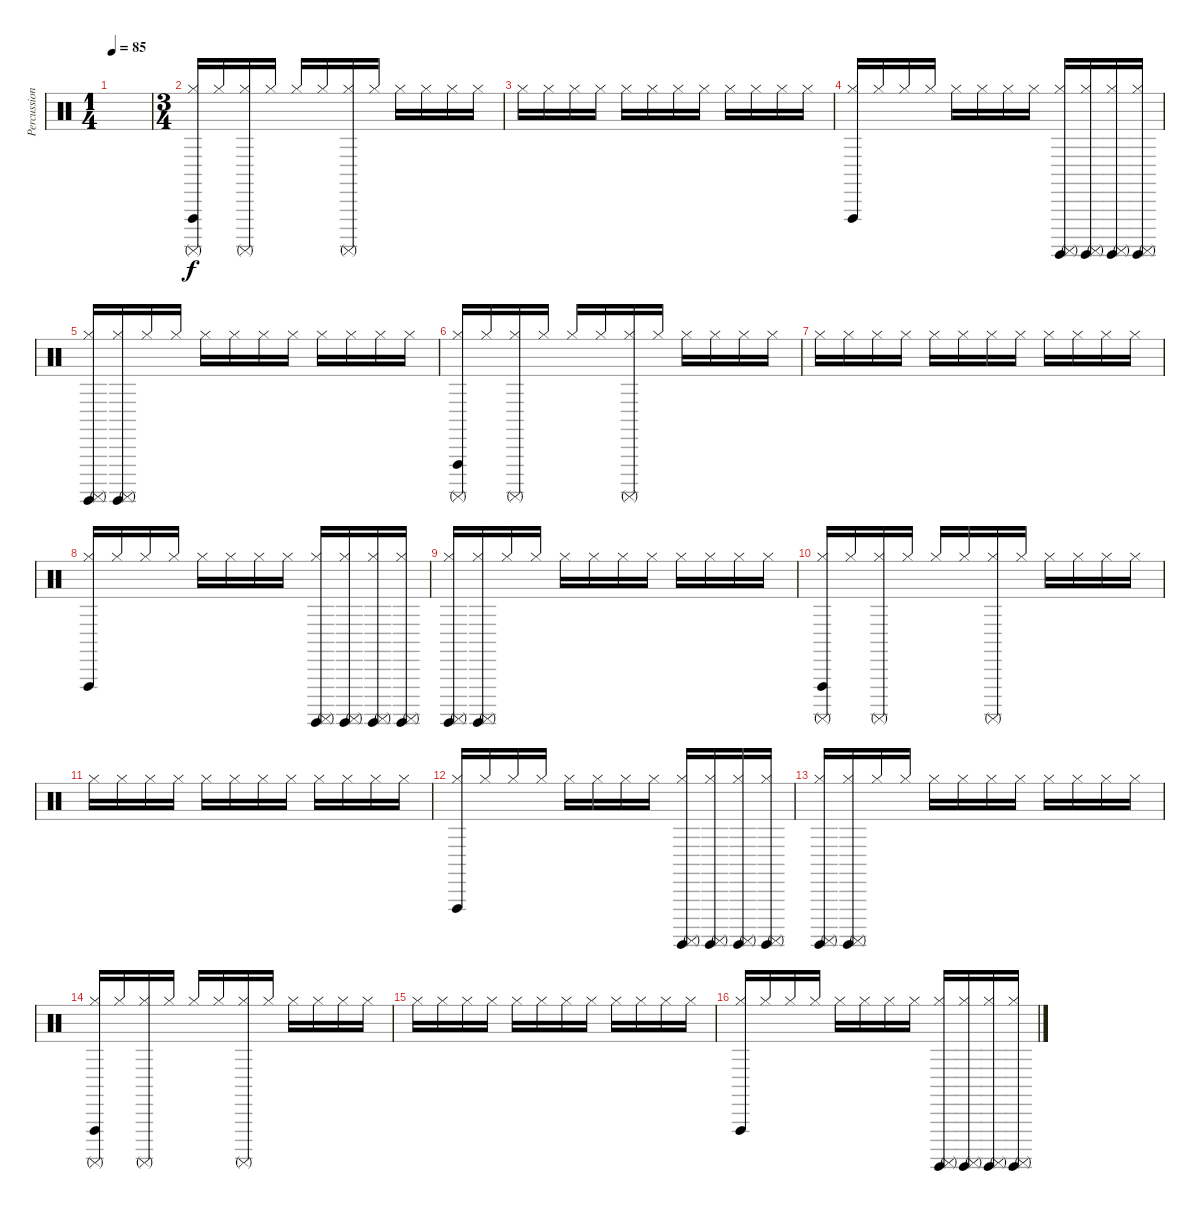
\track ("Percussion" "Percussion") {instrument percussion}
\staff {score}
\articulation defaults
\ts (1 4)
\tempo 85
\clef neutral
\ks c
|
\ts (3 4)
("Vibraslap (hit)" "Surdo (mute)" "Hi-Hat (closed)").16 "Hi-Hat (closed)".16 ("Surdo (mute)" "Hi-Hat (closed)").16 "Hi-Hat (closed)".16 "Hi-Hat (closed)".16 "Hi-Hat (closed)".16 ("Surdo (mute)" "Hi-Hat (closed)").16 "Hi-Hat (closed)".16 "Hi-Hat (closed)".16 "Hi-Hat (closed)".16 "Hi-Hat (closed)".16 "Hi-Hat (closed)".16 |
"Hi-Hat (closed)".16 "Hi-Hat (closed)".16 "Hi-Hat (closed)".16 "Hi-Hat (closed)".16 "Hi-Hat (closed)".16 "Hi-Hat (closed)".16 "Hi-Hat (closed)".16 "Hi-Hat (closed)".16 "Hi-Hat (closed)".16 "Hi-Hat (closed)".16 "Hi-Hat (closed)".16 "Hi-Hat (closed)".16 |
("Vibraslap (hit)" "Hi-Hat (closed)").16 "Hi-Hat (closed)".16 "Hi-Hat (closed)".16 "Hi-Hat (closed)".16 "Hi-Hat (closed)".16 "Hi-Hat (closed)".16 "Hi-Hat (closed)".16 "Hi-Hat (closed)".16 ("Surdo (hit)" "Surdo (mute)" "Hi-Hat (closed)").16{volume 8} ("Surdo (hit)" "Surdo (mute)" "Hi-Hat (closed)").16 ("Surdo (hit)" "Surdo (mute)" "Hi-Hat (closed)").16 ("Surdo (hit)" "Surdo (mute)" "Hi-Hat (closed)").16 |
("Surdo (hit)" "Surdo (mute)" "Hi-Hat (closed)").16 ("Surdo (hit)" "Surdo (mute)" "Hi-Hat (closed)").16 "Hi-Hat (closed)".16 "Hi-Hat (closed)".16 "Hi-Hat (closed)".16{volume 4} "Hi-Hat (closed)".16 "Hi-Hat (closed)".16 "Hi-Hat (closed)".16 "Hi-Hat (closed)".16 "Hi-Hat (closed)".16 "Hi-Hat (closed)".16 "Hi-Hat (closed)".16 |
("Vibraslap (hit)" "Surdo (mute)" "Hi-Hat (closed)").16 "Hi-Hat (closed)".16 ("Surdo (mute)" "Hi-Hat (closed)").16 "Hi-Hat (closed)".16 "Hi-Hat (closed)".16 "Hi-Hat (closed)".16 ("Surdo (mute)" "Hi-Hat (closed)").16 "Hi-Hat (closed)".16 "Hi-Hat (closed)".16 "Hi-Hat (closed)".16 "Hi-Hat (closed)".16 "Hi-Hat (closed)".16 |
"Hi-Hat (closed)".16 "Hi-Hat (closed)".16 "Hi-Hat (closed)".16 "Hi-Hat (closed)".16 "Hi-Hat (closed)".16 "Hi-Hat (closed)".16 "Hi-Hat (closed)".16 "Hi-Hat (closed)".16 "Hi-Hat (closed)".16 "Hi-Hat (closed)".16 "Hi-Hat (closed)".16 "Hi-Hat (closed)".16 |
("Vibraslap (hit)" "Hi-Hat (closed)").16 "Hi-Hat (closed)".16 "Hi-Hat (closed)".16 "Hi-Hat (closed)".16 "Hi-Hat (closed)".16 "Hi-Hat (closed)".16 "Hi-Hat (closed)".16 "Hi-Hat (closed)".16 ("Surdo (hit)" "Surdo (mute)" "Hi-Hat (closed)").16{volume 8} ("Surdo (hit)" "Surdo (mute)" "Hi-Hat (closed)").16 ("Surdo (hit)" "Surdo (mute)" "Hi-Hat (closed)").16 ("Surdo (hit)" "Surdo (mute)" "Hi-Hat (closed)").16 |
("Surdo (hit)" "Surdo (mute)" "Hi-Hat (closed)").16 ("Surdo (hit)" "Surdo (mute)" "Hi-Hat (closed)").16 "Hi-Hat (closed)".16 "Hi-Hat (closed)".16 "Hi-Hat (closed)".16{volume 4} "Hi-Hat (closed)".16 "Hi-Hat (closed)".16 "Hi-Hat (closed)".16 "Hi-Hat (closed)".16 "Hi-Hat (closed)".16 "Hi-Hat (closed)".16 "Hi-Hat (closed)".16 |
("Vibraslap (hit)" "Surdo (mute)" "Hi-Hat (closed)").16 "Hi-Hat (closed)".16 ("Surdo (mute)" "Hi-Hat (closed)").16 "Hi-Hat (closed)".16 "Hi-Hat (closed)".16 "Hi-Hat (closed)".16 ("Surdo (mute)" "Hi-Hat (closed)").16 "Hi-Hat (closed)".16 "Hi-Hat (closed)".16 "Hi-Hat (closed)".16 "Hi-Hat (closed)".16 "Hi-Hat (closed)".16 |
"Hi-Hat (closed)".16 "Hi-Hat (closed)".16 "Hi-Hat (closed)".16 "Hi-Hat (closed)".16 "Hi-Hat (closed)".16 "Hi-Hat (closed)".16 "Hi-Hat (closed)".16 "Hi-Hat (closed)".16 "Hi-Hat (closed)".16 "Hi-Hat (closed)".16 "Hi-Hat (closed)".16 "Hi-Hat (closed)".16 |
("Vibraslap (hit)" "Hi-Hat (closed)").16 "Hi-Hat (closed)".16 "Hi-Hat (closed)".16 "Hi-Hat (closed)".16 "Hi-Hat (closed)".16 "Hi-Hat (closed)".16 "Hi-Hat (closed)".16 "Hi-Hat (closed)".16 ("Surdo (hit)" "Surdo (mute)" "Hi-Hat (closed)").16{volume 8} ("Surdo (hit)" "Surdo (mute)" "Hi-Hat (closed)").16 ("Surdo (hit)" "Surdo (mute)" "Hi-Hat (closed)").16 ("Surdo (hit)" "Surdo (mute)" "Hi-Hat (closed)").16 |
("Surdo (hit)" "Surdo (mute)" "Hi-Hat (closed)").16 ("Surdo (hit)" "Surdo (mute)" "Hi-Hat (closed)").16 "Hi-Hat (closed)".16 "Hi-Hat (closed)".16 "Hi-Hat (closed)".16{volume 4} "Hi-Hat (closed)".16 "Hi-Hat (closed)".16 "Hi-Hat (closed)".16 "Hi-Hat (closed)".16 "Hi-Hat (closed)".16 "Hi-Hat (closed)".16 "Hi-Hat (closed)".16 |
("Vibraslap (hit)" "Surdo (mute)" "Hi-Hat (closed)").16 "Hi-Hat (closed)".16 ("Surdo (mute)" "Hi-Hat (closed)").16 "Hi-Hat (closed)".16 "Hi-Hat (closed)".16 "Hi-Hat (closed)".16 ("Surdo (mute)" "Hi-Hat (closed)").16 "Hi-Hat (closed)".16 "Hi-Hat (closed)".16 "Hi-Hat (closed)".16 "Hi-Hat (closed)".16 "Hi-Hat (closed)".16 |
"Hi-Hat (closed)".16 "Hi-Hat (closed)".16 "Hi-Hat (closed)".16 "Hi-Hat (closed)".16 "Hi-Hat (closed)".16 "Hi-Hat (closed)".16 "Hi-Hat (closed)".16 "Hi-Hat (closed)".16 "Hi-Hat (closed)".16 "Hi-Hat (closed)".16 "Hi-Hat (closed)".16 "Hi-Hat (closed)".16 |
("Vibraslap (hit)" "Hi-Hat (closed)").16 "Hi-Hat (closed)".16 "Hi-Hat (closed)".16 "Hi-Hat (closed)".16 "Hi-Hat (closed)".16 "Hi-Hat (closed)".16 "Hi-Hat (closed)".16 "Hi-Hat (closed)".16 ("Surdo (hit)" "Surdo (mute)" "Hi-Hat (closed)").16{volume 8} ("Surdo (hit)" "Surdo (mute)" "Hi-Hat (closed)").16 ("Surdo (hit)" "Surdo (mute)" "Hi-Hat (closed)").16 ("Surdo (hit)" "Surdo (mute)" "Hi-Hat (closed)").16
